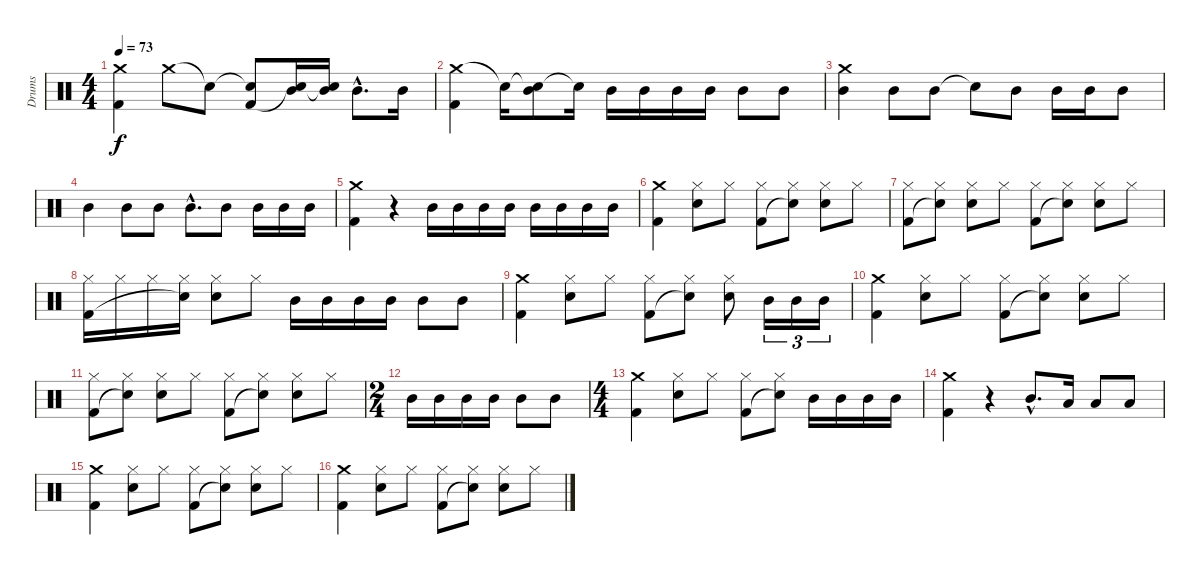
\track ("Drums" "Drums") {instrument percussion}
\staff {score}
\articulation defaults
\ts (4 4)
\tempo 73
\clef neutral
\ks c
("Crash medium (hit)" "Kick (hit) 2").4{dy f} "Crash medium (hit)".8 "Snare (hit)"{t}.8 ("Snare (hit)"{t} "Kick (hit) 2").8 ("Mid Tom (hit)" "Snare (hit)"{t}).16 ("Mid Tom (hit)" "Snare (hit)"{t}).16 "Mid Tom (hit)"{hac}.8{d} "Mid Tom (hit)".16 |
("Crash medium (hit)" "Kick (hit) 2").4 "Snare (hit)"{t}.16 ("Snare (hit)"{t} "Mid Tom (hit)").8 "Snare (hit)"{t}.16 "Mid Tom (hit)".16 "Mid Tom (hit)".16 "Mid Tom (hit)".16 "Mid Tom (hit)".16 "Mid Tom (hit)".8 "Mid Tom (hit)".8 |
("Crash medium (hit)" "Mid Tom (hit)").4 "Mid Tom (hit)".8 "Mid Tom (hit)".8 "Snare (hit)"{t}.8 "Mid Tom (hit)".8 "Mid Tom (hit)".16 "Mid Tom (hit)".16 "Mid Tom (hit)".8 |
"Mid Tom (hit)".4 "Mid Tom (hit)".8 "Mid Tom (hit)".8 "Mid Tom (hit)"{hac}.8{d} "Mid Tom (hit)".8 "Mid Tom (hit)".16 "Mid Tom (hit)".16 "Mid Tom (hit)".16 |
("Crash medium (hit)" "Kick (hit) 2").4 r.4 "Mid Tom (hit)".16 "Mid Tom (hit)".16 "Mid Tom (hit)".16 "Mid Tom (hit)".16 "Mid Tom (hit)".16 "Mid Tom (hit)".16 "Mid Tom (hit)".16 "Mid Tom (hit)".16 |
("Crash medium (hit)" "Kick (hit) 2").4 ("Hi-Hat (closed)" "Snare (hit) 2").8 "Hi-Hat (closed)".8 ("Hi-Hat (closed)" "Kick (hit) 2").8 ("Hi-Hat (closed)" "Snare (hit)"{t}).8 ("Hi-Hat (closed)" "Snare (hit) 2").8 "Hi-Hat (closed)".8 |
("Hi-Hat (closed)" "Kick (hit) 2").8 ("Hi-Hat (closed)" "Snare (hit)"{t}).8 ("Hi-Hat (closed)" "Snare (hit) 2").8 "Hi-Hat (closed)".8 ("Hi-Hat (closed)" "Kick (hit) 2").8 ("Hi-Hat (closed)" "Snare (hit)"{t}).8 ("Hi-Hat (closed)" "Snare (hit) 2").8 "Hi-Hat (closed)".8 |
("Hi-Hat (closed)" "Kick (hit) 2").16 "Hi-Hat (closed)".16 "Hi-Hat (closed)".16 ("Hi-Hat (closed)" "Snare (hit)"{t}).16 ("Hi-Hat (closed)" "Snare (hit) 2").8 "Hi-Hat (closed)".8 "Mid Tom (hit)".16 "Mid Tom (hit)".16 "Mid Tom (hit)".16 "Mid Tom (hit)".16 "Mid Tom (hit)".8 "Mid Tom (hit)".8 |
("Crash medium (hit)" "Kick (hit) 2").4 ("Hi-Hat (closed)" "Snare (hit) 2").8 "Hi-Hat (closed)".8 ("Hi-Hat (closed)" "Kick (hit) 2").8 ("Hi-Hat (closed)" "Snare (hit)"{t}).8 ("Hi-Hat (closed)" "Snare (hit) 2").8 "Mid Tom (hit)".16{tu (3 2)} "Mid Tom (hit)".16{tu (3 2)} "Mid Tom (hit)".16{tu (3 2)} |
("Crash medium (hit)" "Kick (hit) 2").4 ("Hi-Hat (closed)" "Snare (hit) 2").8 "Hi-Hat (closed)".8 ("Hi-Hat (closed)" "Kick (hit) 2").8 ("Hi-Hat (closed)" "Snare (hit)"{t}).8 ("Hi-Hat (closed)" "Snare (hit) 2").8 "Hi-Hat (closed)".8 |
("Hi-Hat (closed)" "Kick (hit) 2").8 ("Hi-Hat (closed)" "Snare (hit)"{t}).8 ("Hi-Hat (closed)" "Snare (hit) 2").8 "Hi-Hat (closed)".8 ("Hi-Hat (closed)" "Kick (hit) 2").8 ("Hi-Hat (closed)" "Snare (hit)"{t}).8 ("Hi-Hat (closed)" "Snare (hit) 2").8 "Hi-Hat (closed)".8 |
\ts (2 4)
"Mid Tom (hit)".16 "Mid Tom (hit)".16 "Mid Tom (hit)".16 "Mid Tom (hit)".16 "Mid Tom (hit)".8 "Mid Tom (hit)".8 |
\ts (4 4)
("Crash medium (hit)" "Kick (hit) 2").4 ("Hi-Hat (closed)" "Snare (hit) 2").8 "Hi-Hat (closed)".8 ("Hi-Hat (closed)" "Kick (hit) 2").8 ("Hi-Hat (closed)" "Snare (hit)"{t}).8 "Mid Tom (hit)".16 "Mid Tom (hit)".16 "Mid Tom (hit)".16 "Mid Tom (hit)".16 |
("Crash medium (hit)" "Kick (hit) 2").4 r.4 "Mid Tom (hit)"{hac}.8{d} "Low Tom (hit)".16 "Low Tom (hit)".8 "Low Tom (hit)".8 |
("Crash medium (hit)" "Kick (hit) 2").4 ("Hi-Hat (closed)" "Snare (hit) 2").8 "Hi-Hat (closed)".8 ("Hi-Hat (closed)" "Kick (hit) 2").8 ("Hi-Hat (closed)" "Snare (hit)"{t}).8 ("Hi-Hat (closed)" "Snare (hit) 2").8 "Hi-Hat (closed)".8 |
("Crash medium (hit)" "Kick (hit) 2").4 ("Hi-Hat (closed)" "Snare (hit) 2").8 "Hi-Hat (closed)".8 ("Hi-Hat (closed)" "Kick (hit) 2").8 ("Hi-Hat (closed)" "Snare (hit)"{t}).8 ("Hi-Hat (closed)" "Snare (hit) 2").8 "Hi-Hat (closed)".8
